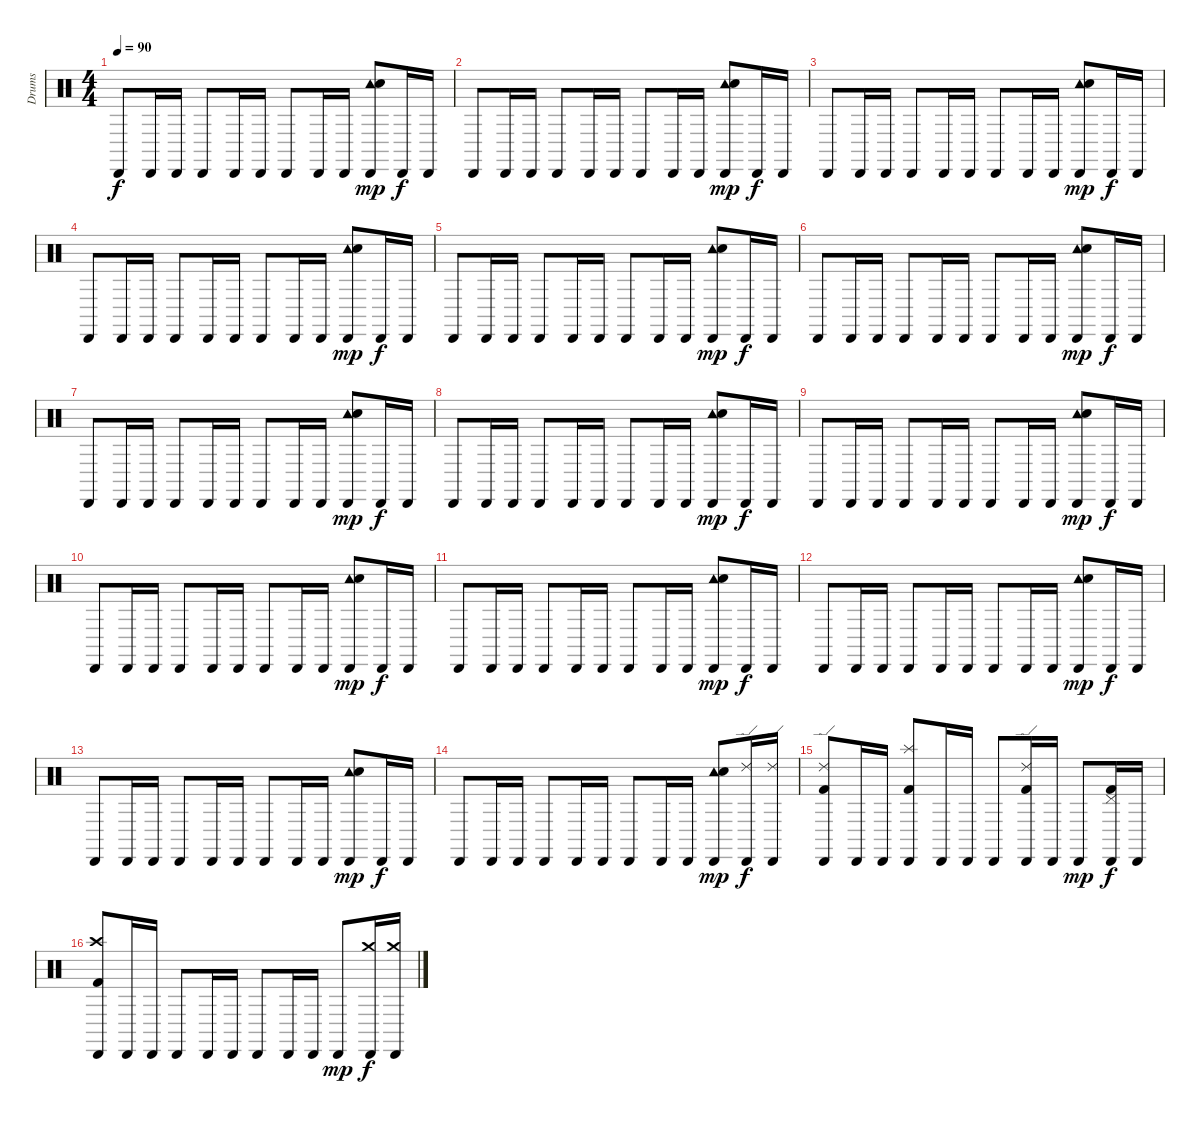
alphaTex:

\track ("Drums" "Drums") {instrument percussion}
\staff {score}
\articulation defaults
\ts (4 4)
\tempo 90
\clef neutral
\ks c "Cabasa (hit)".8{dy f} "Cabasa (hit)".16 "Cabasa (hit)".16 "Cabasa (hit)".8 "Cabasa (hit)".16 "Cabasa (hit)".16 "Cabasa (hit)".8 "Cabasa (hit)".16 "Cabasa (hit)".16
("Tambourine (hit)" "Cabasa (hit)" "Electric Snare (hit)").8{dy mp} "Cabasa (hit)".16{dy f} "Cabasa (hit)".16 |
"Cabasa (hit)".8 "Cabasa (hit)".16 "Cabasa (hit)".16 "Cabasa (hit)".8 "Cabasa (hit)".16 "Cabasa (hit)".16 "Cabasa (hit)".8 "Cabasa (hit)".16 "Cabasa (hit)".16 ("Tambourine (hit)" "Cabasa (hit)" "Electric Snare (hit)").8{dy mp} "Cabasa (hit)".16{dy f} "Cabasa (hit)".16 |
"Cabasa (hit)".8 "Cabasa (hit)".16 "Cabasa (hit)".16 "Cabasa (hit)".8 "Cabasa (hit)".16 "Cabasa (hit)".16 "Cabasa (hit)".8 "Cabasa (hit)".16 "Cabasa (hit)".16 ("Tambourine (hit)" "Cabasa (hit)" "Electric Snare (hit)").8{dy mp} "Cabasa (hit)".16{dy f} "Cabasa (hit)".16 |
"Cabasa (hit)".8 "Cabasa (hit)".16 "Cabasa (hit)".16 "Cabasa (hit)".8 "Cabasa (hit)".16 "Cabasa (hit)".16 "Cabasa (hit)".8 "Cabasa (hit)".16 "Cabasa (hit)".16 ("Tambourine (hit)" "Cabasa (hit)" "Electric Snare (hit)").8{dy mp} "Cabasa (hit)".16{dy f} "Cabasa (hit)".16 |
"Cabasa (hit)".8 "Cabasa (hit)".16 "Cabasa (hit)".16 "Cabasa (hit)".8 "Cabasa (hit)".16 "Cabasa (hit)".16 "Cabasa (hit)".8 "Cabasa (hit)".16 "Cabasa (hit)".16 ("Tambourine (hit)" "Cabasa (hit)" "Electric Snare (hit)").8{dy mp} "Cabasa (hit)".16{dy f} "Cabasa (hit)".16 |
"Cabasa (hit)".8 "Cabasa (hit)".16 "Cabasa (hit)".16 "Cabasa (hit)".8 "Cabasa (hit)".16 "Cabasa (hit)".16 "Cabasa (hit)".8 "Cabasa (hit)".16 "Cabasa (hit)".16 ("Tambourine (hit)" "Cabasa (hit)" "Electric Snare (hit)").8{dy mp} "Cabasa (hit)".16{dy f} "Cabasa (hit)".16 |
"Cabasa (hit)".8 "Cabasa (hit)".16 "Cabasa (hit)".16 "Cabasa (hit)".8 "Cabasa (hit)".16 "Cabasa (hit)".16 "Cabasa (hit)".8 "Cabasa (hit)".16 "Cabasa (hit)".16 ("Tambourine (hit)" "Cabasa (hit)" "Electric Snare (hit)").8{dy mp} "Cabasa (hit)".16{dy f} "Cabasa (hit)".16 |
"Cabasa (hit)".8 "Cabasa (hit)".16 "Cabasa (hit)".16 "Cabasa (hit)".8 "Cabasa (hit)".16 "Cabasa (hit)".16 "Cabasa (hit)".8 "Cabasa (hit)".16 "Cabasa (hit)".16 ("Tambourine (hit)" "Cabasa (hit)" "Electric Snare (hit)").8{dy mp} "Cabasa (hit)".16{dy f} "Cabasa (hit)".16 |
"Cabasa (hit)".8 "Cabasa (hit)".16 "Cabasa (hit)".16 "Cabasa (hit)".8 "Cabasa (hit)".16 "Cabasa (hit)".16 "Cabasa (hit)".8 "Cabasa (hit)".16 "Cabasa (hit)".16 ("Tambourine (hit)" "Cabasa (hit)" "Electric Snare (hit)").8{dy mp} "Cabasa (hit)".16{dy f} "Cabasa (hit)".16 |
"Cabasa (hit)".8 "Cabasa (hit)".16 "Cabasa (hit)".16 "Cabasa (hit)".8 "Cabasa (hit)".16 "Cabasa (hit)".16 "Cabasa (hit)".8 "Cabasa (hit)".16 "Cabasa (hit)".16 ("Tambourine (hit)" "Cabasa (hit)" "Electric Snare (hit)").8{dy mp} "Cabasa (hit)".16{dy f} "Cabasa (hit)".16 |
"Cabasa (hit)".8 "Cabasa (hit)".16 "Cabasa (hit)".16 "Cabasa (hit)".8 "Cabasa (hit)".16 "Cabasa (hit)".16 "Cabasa (hit)".8 "Cabasa (hit)".16 "Cabasa (hit)".16 ("Tambourine (hit)" "Cabasa (hit)" "Electric Snare (hit)").8{dy mp} "Cabasa (hit)".16{dy f} "Cabasa (hit)".16 |
"Cabasa (hit)".8 "Cabasa (hit)".16 "Cabasa (hit)".16 "Cabasa (hit)".8 "Cabasa (hit)".16 "Cabasa (hit)".16 "Cabasa (hit)".8 "Cabasa (hit)".16 "Cabasa (hit)".16 ("Tambourine (hit)" "Cabasa (hit)" "Electric Snare (hit)").8{dy mp} "Cabasa (hit)".16{dy f} "Cabasa (hit)".16 |
"Cabasa (hit)".8 "Cabasa (hit)".16 "Cabasa (hit)".16 "Cabasa (hit)".8 "Cabasa (hit)".16 "Cabasa (hit)".16 "Cabasa (hit)".8 "Cabasa (hit)".16 "Cabasa (hit)".16 ("Tambourine (hit)" "Cabasa (hit)" "Electric Snare (hit)").8{dy mp} "Cabasa (hit)".16{dy f} "Cabasa (hit)".16 |
"Cabasa (hit)".8 "Cabasa (hit)".16 "Cabasa (hit)".16 "Cabasa (hit)".8 "Cabasa (hit)".16 "Cabasa (hit)".16 "Cabasa (hit)".8 "Cabasa (hit)".16 "Cabasa (hit)".16 ("Tambourine (hit)" "Cabasa (hit)" "Electric Snare (hit)").8{dy mp} ("Ride (edge) 2" "Cabasa (hit)").16{dy f} ("Ride (edge) 2" "Cabasa (hit)").16 |
("Ride (edge) 2" "Cabasa (hit)" "Kick (hit) 2").8 "Cabasa (hit)".16 "Cabasa (hit)".16 ("Splash (hit)" "Cabasa (hit)" "Kick (hit) 2").8 "Cabasa (hit)".16 "Cabasa (hit)".16 "Cabasa (hit)".8 ("Ride (edge) 2" "Cabasa (hit)" "Kick (hit) 2").16 "Cabasa (hit)".16 "Cabasa (hit)".8{dy mp} ("Pedal Hi-Hat (hit)" "Cabasa (hit)" "Kick (hit) 2").16{dy f} "Cabasa (hit)".16 |
("Crash high (hit)" "Cabasa (hit)" "Kick (hit) 2").8 "Cabasa (hit)".16 "Cabasa (hit)".16 "Cabasa (hit)".8 "Cabasa (hit)".16 "Cabasa (hit)".16 "Cabasa (hit)".8 "Cabasa (hit)".16 "Cabasa (hit)".16 "Cabasa (hit)".8{dy mp} ("Crash medium (hit)" "Cabasa (hit)").16{dy f} ("Crash medium (hit)" "Cabasa (hit)").16
